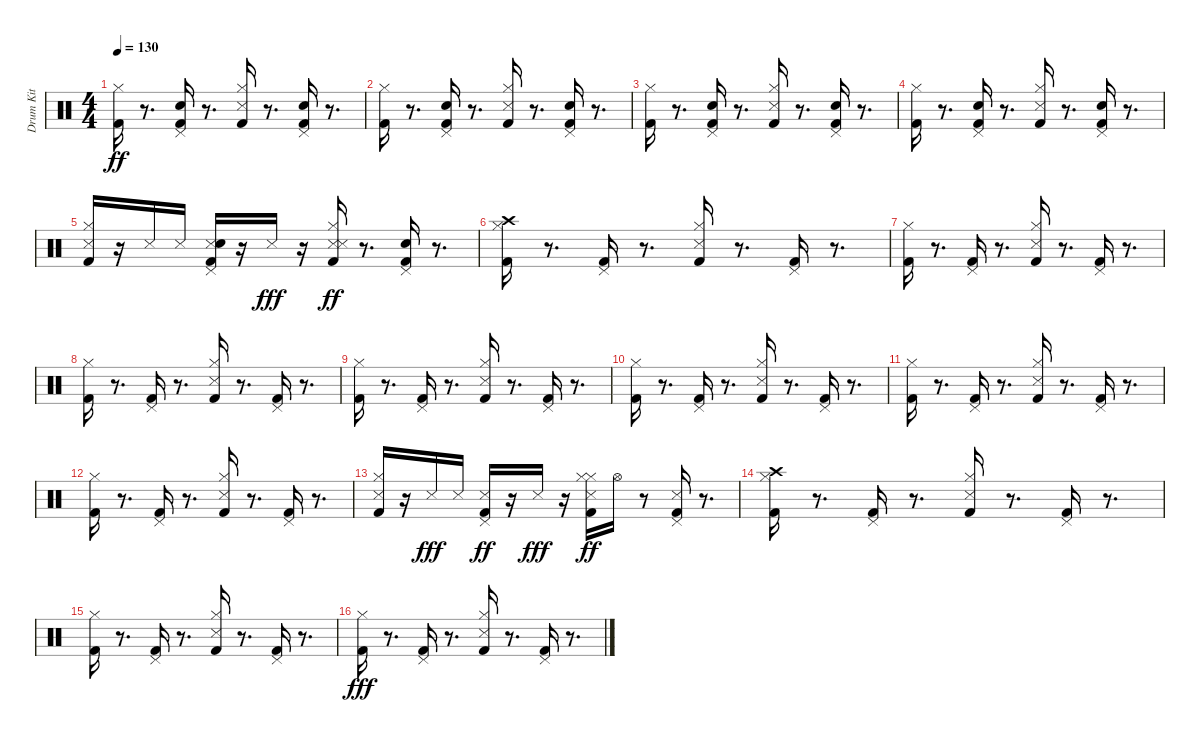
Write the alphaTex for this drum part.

\track ("Drum Kit" "Drum Kit") {instrument percussion}
\staff {score}
\articulation defaults
\ts (4 4)
\tempo 130
\clef neutral
\ks c
("Kick (hit) 2" "Hi-Hat (closed)").16{dy ff} r.8{d} ("Kick (hit) 2" "Electric Snare (hit)" "Pedal Hi-Hat (hit)").16 r.8{d} ("Kick (hit) 2" "Snare (side stick) 3" "Hi-Hat (closed)").16 r.8{d} ("Kick (hit) 2" "Electric Snare (hit)" "Pedal Hi-Hat (hit)").16 r.8{d} |
("Kick (hit) 2" "Hi-Hat (closed)").16 r.8{d} ("Kick (hit) 2" "Electric Snare (hit)" "Pedal Hi-Hat (hit)").16 r.8{d} ("Kick (hit) 2" "Snare (side stick) 3" "Hi-Hat (closed)").16 r.8{d} ("Kick (hit) 2" "Electric Snare (hit)" "Pedal Hi-Hat (hit)").16 r.8{d} |
("Kick (hit) 2" "Hi-Hat (closed)").16 r.8{d} ("Kick (hit) 2" "Electric Snare (hit)" "Pedal Hi-Hat (hit)").16 r.8{d} ("Kick (hit) 2" "Snare (side stick) 3" "Hi-Hat (closed)").16 r.8{d} ("Kick (hit) 2" "Electric Snare (hit)" "Pedal Hi-Hat (hit)").16 r.8{d} |
("Kick (hit) 2" "Hi-Hat (closed)").16 r.8{d} ("Kick (hit) 2" "Electric Snare (hit)" "Pedal Hi-Hat (hit)").16 r.8{d} ("Kick (hit) 2" "Snare (side stick) 3" "Hi-Hat (closed)").16 r.8{d} ("Kick (hit) 2" "Electric Snare (hit)" "Pedal Hi-Hat (hit)").16 r.8{d} |
("Kick (hit) 2" "Snare (side stick) 3" "Hi-Hat (closed)").16 r.16 "Snare (side stick) 3".16 "Snare (side stick) 3".16 ("Kick (hit) 2" "Snare (side stick) 3" "Electric Snare (hit)" "Pedal Hi-Hat (hit)").16 r.16 "Snare (side stick) 3".16{dy fff} r.16 ("Kick (hit) 2" "Snare (side stick) 3" "Snare (side stick) 3" "Hi-Hat (closed)").16{dy ff} r.8{d} ("Kick (hit) 2" "Electric Snare (hit)" "Pedal Hi-Hat (hit)").16 r.8{d} |
("Kick (hit) 2" "Hi-Hat (closed)" "Crash high (hit)").16 r.8{d} ("Kick (hit) 2" "Pedal Hi-Hat (hit)").16 r.8{d} ("Kick (hit) 2" "Snare (side stick) 3" "Hi-Hat (closed)").16 r.8{d} ("Kick (hit) 2" "Pedal Hi-Hat (hit)").16 r.8{d} |
("Kick (hit) 2" "Hi-Hat (closed)").16 r.8{d} ("Kick (hit) 2" "Pedal Hi-Hat (hit)").16 r.8{d} ("Kick (hit) 2" "Snare (side stick) 3" "Hi-Hat (closed)").16 r.8{d} ("Kick (hit) 2" "Pedal Hi-Hat (hit)").16 r.8{d} |
("Kick (hit) 2" "Hi-Hat (closed)").16 r.8{d} ("Kick (hit) 2" "Pedal Hi-Hat (hit)").16 r.8{d} ("Kick (hit) 2" "Snare (side stick) 3" "Hi-Hat (closed)").16 r.8{d} ("Kick (hit) 2" "Pedal Hi-Hat (hit)").16 r.8{d} |
("Kick (hit) 2" "Hi-Hat (closed)").16 r.8{d} ("Kick (hit) 2" "Pedal Hi-Hat (hit)").16 r.8{d} ("Kick (hit) 2" "Snare (side stick) 3" "Hi-Hat (closed)").16 r.8{d} ("Kick (hit) 2" "Pedal Hi-Hat (hit)").16 r.8{d} |
("Kick (hit) 2" "Hi-Hat (closed)").16 r.8{d} ("Kick (hit) 2" "Pedal Hi-Hat (hit)").16 r.8{d} ("Kick (hit) 2" "Snare (side stick) 3" "Hi-Hat (closed)").16 r.8{d} ("Kick (hit) 2" "Pedal Hi-Hat (hit)").16 r.8{d} |
("Kick (hit) 2" "Hi-Hat (closed)").16 r.8{d} ("Kick (hit) 2" "Pedal Hi-Hat (hit)").16 r.8{d} ("Kick (hit) 2" "Snare (side stick) 3" "Hi-Hat (closed)").16 r.8{d} ("Kick (hit) 2" "Pedal Hi-Hat (hit)").16 r.8{d} |
("Kick (hit) 2" "Hi-Hat (closed)").16 r.8{d} ("Kick (hit) 2" "Pedal Hi-Hat (hit)").16 r.8{d} ("Kick (hit) 2" "Snare (side stick) 3" "Hi-Hat (closed)").16 r.8{d} ("Kick (hit) 2" "Pedal Hi-Hat (hit)").16 r.8{d} |
("Kick (hit) 2" "Snare (side stick) 3" "Hi-Hat (closed)").16 r.16 "Snare (side stick) 3".16{dy fff} "Snare (side stick) 3".16 ("Kick (hit) 2" "Snare (side stick) 3" "Pedal Hi-Hat (hit)").16{dy ff} r.16 "Snare (side stick) 3".16{dy fff} r.16 ("Kick (hit) 2" "Snare (side stick) 3" "Hi-Hat (closed)" "Hi-Hat (closed)").16{dy ff} "Hi-Hat (open)".16 r.8 ("Kick (hit) 2" "Snare (side stick) 3" "Pedal Hi-Hat (hit)").16 r.8{d} |
("Kick (hit) 2" "Hi-Hat (closed)" "Crash high (hit)").16 r.8{d} ("Kick (hit) 2" "Pedal Hi-Hat (hit)").16 r.8{d} ("Kick (hit) 2" "Snare (side stick) 3" "Hi-Hat (closed)").16 r.8{d} ("Kick (hit) 2" "Pedal Hi-Hat (hit)").16 r.8{d} |
("Kick (hit) 2" "Hi-Hat (closed)").16 r.8{d} ("Kick (hit) 2" "Pedal Hi-Hat (hit)").16 r.8{d} ("Kick (hit) 2" "Snare (side stick) 3" "Hi-Hat (closed)").16 r.8{d} ("Kick (hit) 2" "Pedal Hi-Hat (hit)").16 r.8{d} |
("Kick (hit) 2" "Hi-Hat (closed)").16{dy fff} r.8{d} ("Kick (hit) 2" "Pedal Hi-Hat (hit)").16 r.8{d} ("Kick (hit) 2" "Snare (side stick) 3" "Hi-Hat (closed)").16 r.8{d} ("Kick (hit) 2" "Pedal Hi-Hat (hit)").16 r.8{d}
